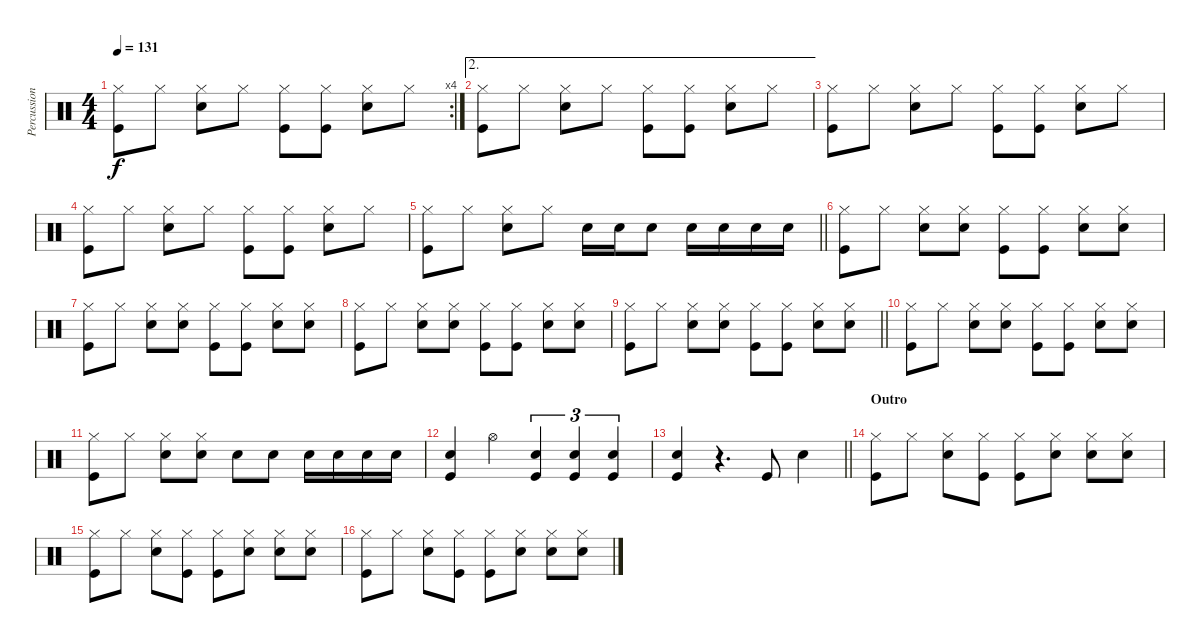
\track ("Percussion" "Percussion") {instrument percussion}
\staff {score}
\articulation defaults
\rc 4
\ts (4 4)
\tempo 131
\clef neutral
\ks c
("Hi-Hat (closed)" "Kick (hit)").8{dy f} "Hi-Hat (closed)".8 ("Hi-Hat (closed)" "Snare (hit) 2").8 "Hi-Hat (closed)".8 ("Hi-Hat (closed)" "Kick (hit)").8 ("Hi-Hat (closed)" "Kick (hit)").8 ("Hi-Hat (closed)" "Snare (hit) 2").8 "Hi-Hat (closed)".8 |
\ae 2
("Hi-Hat (closed)" "Kick (hit)").8 "Hi-Hat (closed)".8 ("Hi-Hat (closed)" "Snare (hit) 2").8 "Hi-Hat (closed)".8 ("Hi-Hat (closed)" "Kick (hit)").8 ("Hi-Hat (closed)" "Kick (hit)").8 ("Hi-Hat (closed)" "Snare (hit) 2").8 "Hi-Hat (closed)".8 |
("Hi-Hat (closed)" "Kick (hit)").8 "Hi-Hat (closed)".8 ("Hi-Hat (closed)" "Snare (hit) 2").8 "Hi-Hat (closed)".8 ("Hi-Hat (closed)" "Kick (hit)").8 ("Hi-Hat (closed)" "Kick (hit)").8 ("Hi-Hat (closed)" "Snare (hit) 2").8 "Hi-Hat (closed)".8 |
("Hi-Hat (closed)" "Kick (hit)").8 "Hi-Hat (closed)".8 ("Hi-Hat (closed)" "Snare (hit) 2").8 "Hi-Hat (closed)".8 ("Hi-Hat (closed)" "Kick (hit)").8 ("Hi-Hat (closed)" "Kick (hit)").8 ("Hi-Hat (closed)" "Snare (hit) 2").8 "Hi-Hat (closed)".8 |
\barLineRight lightlight
("Hi-Hat (closed)" "Kick (hit)").8 "Hi-Hat (closed)".8 ("Hi-Hat (closed)" "Snare (hit) 2").8 "Hi-Hat (closed)".8 "Snare (hit) 2".16 "Snare (hit) 2".16 "Snare (hit) 2".8 "Snare (hit) 2".16 "Snare (hit) 2".16 "Snare (hit) 2".16 "Snare (hit) 2".16 |
("Hi-Hat (closed)" "Kick (hit)").8 "Hi-Hat (closed)".8 ("Hi-Hat (closed)" "Snare (hit) 2").8 ("Hi-Hat (closed)" "Snare (hit) 2").8 ("Hi-Hat (closed)" "Kick (hit)").8 ("Hi-Hat (closed)" "Kick (hit)").8 ("Hi-Hat (closed)" "Snare (hit) 2").8 ("Hi-Hat (closed)" "Snare (hit) 2").8 |
("Hi-Hat (closed)" "Kick (hit)").8 "Hi-Hat (closed)".8 ("Hi-Hat (closed)" "Snare (hit) 2").8 ("Hi-Hat (closed)" "Snare (hit) 2").8 ("Hi-Hat (closed)" "Kick (hit)").8 ("Hi-Hat (closed)" "Kick (hit)").8 ("Hi-Hat (closed)" "Snare (hit) 2").8 ("Hi-Hat (closed)" "Snare (hit) 2").8 |
("Hi-Hat (closed)" "Kick (hit)").8 "Hi-Hat (closed)".8 ("Hi-Hat (closed)" "Snare (hit) 2").8 ("Hi-Hat (closed)" "Snare (hit) 2").8 ("Hi-Hat (closed)" "Kick (hit)").8 ("Hi-Hat (closed)" "Kick (hit)").8 ("Hi-Hat (closed)" "Snare (hit) 2").8 ("Hi-Hat (closed)" "Snare (hit) 2").8 |
\barLineRight lightlight
("Hi-Hat (closed)" "Kick (hit)").8 "Hi-Hat (closed)".8 ("Hi-Hat (closed)" "Snare (hit) 2").8 ("Hi-Hat (closed)" "Snare (hit) 2").8 ("Hi-Hat (closed)" "Kick (hit)").8 ("Hi-Hat (closed)" "Kick (hit)").8 ("Hi-Hat (closed)" "Snare (hit) 2").8 ("Hi-Hat (closed)" "Snare (hit) 2").8 |
("Hi-Hat (closed)" "Kick (hit)").8 "Hi-Hat (closed)".8 ("Hi-Hat (closed)" "Snare (hit) 2").8 ("Hi-Hat (closed)" "Snare (hit) 2").8 ("Hi-Hat (closed)" "Kick (hit)").8 ("Hi-Hat (closed)" "Kick (hit)").8 ("Hi-Hat (closed)" "Snare (hit) 2").8 ("Hi-Hat (closed)" "Snare (hit) 2").8 |
("Hi-Hat (closed)" "Kick (hit)").8 "Hi-Hat (closed)".8 ("Hi-Hat (closed)" "Snare (hit) 2").8 ("Hi-Hat (closed)" "Snare (hit) 2").8 "Snare (hit) 2".8 "Snare (hit) 2".8 "Snare (hit) 2".16 "Snare (hit) 2".16 "Snare (hit) 2".16 "Snare (hit) 2".16 |
("Kick (hit)" "Snare (hit) 2").4 "Hi-Hat (open)".4 ("Kick (hit)" "Snare (hit) 2").4{tu (3 2)} ("Kick (hit)" "Snare (hit) 2").4{tu (3 2)} ("Kick (hit)" "Snare (hit) 2").4{tu (3 2)} |
\barLineRight lightlight
("Kick (hit)" "Snare (hit) 2").4 r.4{d} "Kick (hit)".8 "Snare (hit) 2".4 |
\section ("" "Outro")
("Hi-Hat (closed)" "Kick (hit)").8 "Hi-Hat (closed)".8 ("Hi-Hat (closed)" "Snare (hit) 2").8 ("Hi-Hat (closed)" "Kick (hit)").8 ("Hi-Hat (closed)" "Kick (hit)").8 ("Hi-Hat (closed)" "Snare (hit) 2").8 ("Hi-Hat (closed)" "Snare (hit) 2").8 ("Hi-Hat (closed)" "Snare (hit) 2").8 |
("Hi-Hat (closed)" "Kick (hit)").8 "Hi-Hat (closed)".8 ("Hi-Hat (closed)" "Snare (hit) 2").8 ("Hi-Hat (closed)" "Kick (hit)").8 ("Hi-Hat (closed)" "Kick (hit)").8 ("Hi-Hat (closed)" "Snare (hit) 2").8 ("Hi-Hat (closed)" "Snare (hit) 2").8 ("Hi-Hat (closed)" "Snare (hit) 2").8 |
("Hi-Hat (closed)" "Kick (hit)").8 "Hi-Hat (closed)".8 ("Hi-Hat (closed)" "Snare (hit) 2").8 ("Hi-Hat (closed)" "Kick (hit)").8 ("Hi-Hat (closed)" "Kick (hit)").8 ("Hi-Hat (closed)" "Snare (hit) 2").8 ("Hi-Hat (closed)" "Snare (hit) 2").8 ("Hi-Hat (closed)" "Snare (hit) 2").8
